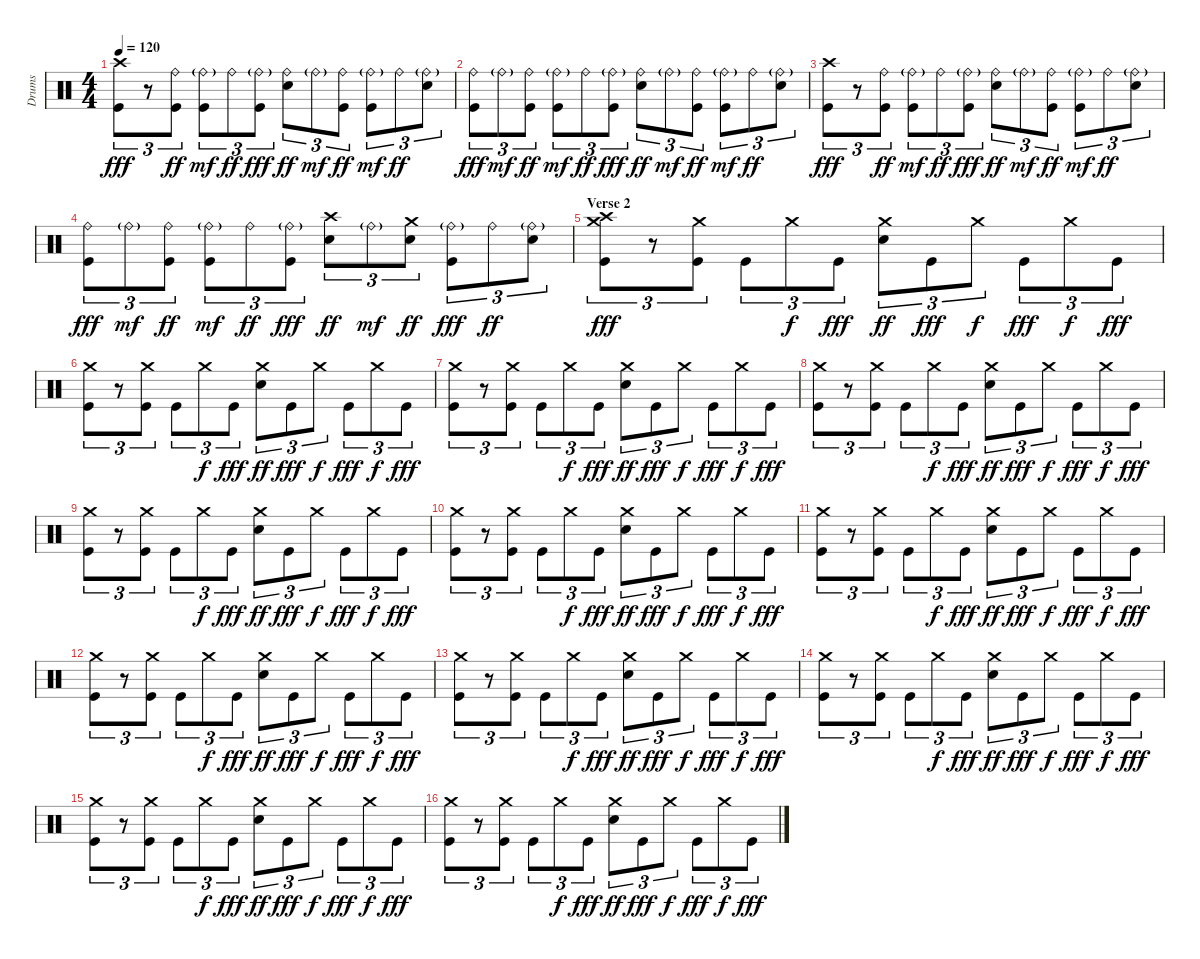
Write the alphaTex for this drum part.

\track ("Drums" "Drums") {instrument percussion}
\staff {score}
\articulation defaults
\ts (4 4)
\tempo 120
\clef neutral
\ks c
("Crash high (hit)" "Kick (hit)").8{tu (3 2) dy fff} r.8{tu (3 2)} ("Ride (bell)" "Kick (hit)").8{tu (3 2) dy ff} ("Ride (bell)"{g} "Kick (hit)").8{tu (3 2) dy mf} "Ride (bell)".8{tu (3 2) dy ff} ("Ride (bell)"{g} "Kick (hit)").8{tu (3 2) dy fff} ("Ride (bell)" "Snare (hit) 2").8{tu (3 2) dy ff} "Ride (bell)"{g}.8{tu (3 2) dy mf} ("Ride (bell)" "Kick (hit)").8{tu (3 2) dy ff} ("Ride (bell)"{g} "Kick (hit)").8{tu (3 2) dy mf} "Ride (bell)".8{tu (3 2) dy ff} ("Ride (bell)"{g} "Snare (hit) 2").8{tu (3 2)} |
("Ride (bell)" "Kick (hit)").8{tu (3 2) dy fff} "Ride (bell)"{g}.8{tu (3 2) dy mf} ("Ride (bell)" "Kick (hit)").8{tu (3 2) dy ff} ("Ride (bell)"{g} "Kick (hit)").8{tu (3 2) dy mf} "Ride (bell)".8{tu (3 2) dy ff} ("Ride (bell)"{g} "Kick (hit)").8{tu (3 2) dy fff} ("Ride (bell)" "Snare (hit) 2").8{tu (3 2) dy ff} "Ride (bell)"{g}.8{tu (3 2) dy mf} ("Ride (bell)" "Kick (hit)").8{tu (3 2) dy ff} ("Ride (bell)"{g} "Kick (hit)").8{tu (3 2) dy mf} "Ride (bell)".8{tu (3 2) dy ff} ("Ride (bell)"{g} "Snare (hit) 2").8{tu (3 2)} |
("Crash high (hit)" "Kick (hit)").8{tu (3 2) dy fff} r.8{tu (3 2)} ("Ride (bell)" "Kick (hit)").8{tu (3 2) dy ff} ("Ride (bell)"{g} "Kick (hit)").8{tu (3 2) dy mf} "Ride (bell)".8{tu (3 2) dy ff} ("Ride (bell)"{g} "Kick (hit)").8{tu (3 2) dy fff} ("Ride (bell)" "Snare (hit) 2").8{tu (3 2) dy ff} "Ride (bell)"{g}.8{tu (3 2) dy mf} ("Ride (bell)" "Kick (hit)").8{tu (3 2) dy ff} ("Ride (bell)"{g} "Kick (hit)").8{tu (3 2) dy mf} "Ride (bell)".8{tu (3 2) dy ff} ("Ride (bell)"{g} "Snare (hit) 2").8{tu (3 2)} |
("Ride (bell)" "Kick (hit)").8{tu (3 2) dy fff} "Ride (bell)"{g}.8{tu (3 2) dy mf} ("Ride (bell)" "Kick (hit)").8{tu (3 2) dy ff} ("Ride (bell)"{g} "Kick (hit)").8{tu (3 2) dy mf} "Ride (bell)".8{tu (3 2) dy ff} ("Ride (bell)"{g} "Kick (hit)").8{tu (3 2) dy fff} ("Crash high (hit)" "Snare (hit) 2").8{tu (3 2) dy ff} "Ride (bell)"{g}.8{tu (3 2) dy mf} ("Crash medium (hit)" "Snare (hit) 2").8{tu (3 2) dy ff} ("Ride (bell)"{g} "Kick (hit)").8{tu (3 2) dy fff} "Ride (bell)".8{tu (3 2) dy ff} ("Ride (bell)"{g} "Snare (hit) 2").8{tu (3 2)} |
\section ("" "Verse 2")
("Crash high (hit)" "Crash medium (hit)" "Kick (hit)").8{tu (3 2) dy fff} r.8{tu (3 2)} ("Crash medium (hit)" "Kick (hit)").8{tu (3 2)} "Kick (hit)".8{tu (3 2)} "Crash medium (hit)".8{tu (3 2) dy f} "Kick (hit)".8{tu (3 2) dy fff} ("Crash medium (hit)" "Snare (hit) 2").8{tu (3 2) dy ff} "Kick (hit)".8{tu (3 2) dy fff} "Crash medium (hit)".8{tu (3 2) dy f} "Kick (hit)".8{tu (3 2) dy fff} "Crash medium (hit)".8{tu (3 2) dy f} "Kick (hit)".8{tu (3 2) dy fff} |
("Crash medium (hit)" "Kick (hit)").8{tu (3 2)} r.8{tu (3 2)} ("Crash medium (hit)" "Kick (hit)").8{tu (3 2)} "Kick (hit)".8{tu (3 2)} "Crash medium (hit)".8{tu (3 2) dy f} "Kick (hit)".8{tu (3 2) dy fff} ("Crash medium (hit)" "Snare (hit) 2").8{tu (3 2) dy ff} "Kick (hit)".8{tu (3 2) dy fff} "Crash medium (hit)".8{tu (3 2) dy f} "Kick (hit)".8{tu (3 2) dy fff} "Crash medium (hit)".8{tu (3 2) dy f} "Kick (hit)".8{tu (3 2) dy fff} |
("Crash medium (hit)" "Kick (hit)").8{tu (3 2)} r.8{tu (3 2)} ("Crash medium (hit)" "Kick (hit)").8{tu (3 2)} "Kick (hit)".8{tu (3 2)} "Crash medium (hit)".8{tu (3 2) dy f} "Kick (hit)".8{tu (3 2) dy fff} ("Crash medium (hit)" "Snare (hit) 2").8{tu (3 2) dy ff} "Kick (hit)".8{tu (3 2) dy fff} "Crash medium (hit)".8{tu (3 2) dy f} "Kick (hit)".8{tu (3 2) dy fff} "Crash medium (hit)".8{tu (3 2) dy f} "Kick (hit)".8{tu (3 2) dy fff} |
("Crash medium (hit)" "Kick (hit)").8{tu (3 2)} r.8{tu (3 2)} ("Crash medium (hit)" "Kick (hit)").8{tu (3 2)} "Kick (hit)".8{tu (3 2)} "Crash medium (hit)".8{tu (3 2) dy f} "Kick (hit)".8{tu (3 2) dy fff} ("Crash medium (hit)" "Snare (hit) 2").8{tu (3 2) dy ff} "Kick (hit)".8{tu (3 2) dy fff} "Crash medium (hit)".8{tu (3 2) dy f} "Kick (hit)".8{tu (3 2) dy fff} "Crash medium (hit)".8{tu (3 2) dy f} "Kick (hit)".8{tu (3 2) dy fff} |
("Crash medium (hit)" "Kick (hit)").8{tu (3 2)} r.8{tu (3 2)} ("Crash medium (hit)" "Kick (hit)").8{tu (3 2)} "Kick (hit)".8{tu (3 2)} "Crash medium (hit)".8{tu (3 2) dy f} "Kick (hit)".8{tu (3 2) dy fff} ("Crash medium (hit)" "Snare (hit) 2").8{tu (3 2) dy ff} "Kick (hit)".8{tu (3 2) dy fff} "Crash medium (hit)".8{tu (3 2) dy f} "Kick (hit)".8{tu (3 2) dy fff} "Crash medium (hit)".8{tu (3 2) dy f} "Kick (hit)".8{tu (3 2) dy fff} |
("Crash medium (hit)" "Kick (hit)").8{tu (3 2)} r.8{tu (3 2)} ("Crash medium (hit)" "Kick (hit)").8{tu (3 2)} "Kick (hit)".8{tu (3 2)} "Crash medium (hit)".8{tu (3 2) dy f} "Kick (hit)".8{tu (3 2) dy fff} ("Crash medium (hit)" "Snare (hit) 2").8{tu (3 2) dy ff} "Kick (hit)".8{tu (3 2) dy fff} "Crash medium (hit)".8{tu (3 2) dy f} "Kick (hit)".8{tu (3 2) dy fff} "Crash medium (hit)".8{tu (3 2) dy f} "Kick (hit)".8{tu (3 2) dy fff} |
("Crash medium (hit)" "Kick (hit)").8{tu (3 2)} r.8{tu (3 2)} ("Crash medium (hit)" "Kick (hit)").8{tu (3 2)} "Kick (hit)".8{tu (3 2)} "Crash medium (hit)".8{tu (3 2) dy f} "Kick (hit)".8{tu (3 2) dy fff} ("Crash medium (hit)" "Snare (hit) 2").8{tu (3 2) dy ff} "Kick (hit)".8{tu (3 2) dy fff} "Crash medium (hit)".8{tu (3 2) dy f} "Kick (hit)".8{tu (3 2) dy fff} "Crash medium (hit)".8{tu (3 2) dy f} "Kick (hit)".8{tu (3 2) dy fff} |
("Crash medium (hit)" "Kick (hit)").8{tu (3 2)} r.8{tu (3 2)} ("Crash medium (hit)" "Kick (hit)").8{tu (3 2)} "Kick (hit)".8{tu (3 2)} "Crash medium (hit)".8{tu (3 2) dy f} "Kick (hit)".8{tu (3 2) dy fff} ("Crash medium (hit)" "Snare (hit) 2").8{tu (3 2) dy ff} "Kick (hit)".8{tu (3 2) dy fff} "Crash medium (hit)".8{tu (3 2) dy f} "Kick (hit)".8{tu (3 2) dy fff} "Crash medium (hit)".8{tu (3 2) dy f} "Kick (hit)".8{tu (3 2) dy fff} |
("Crash medium (hit)" "Kick (hit)").8{tu (3 2)} r.8{tu (3 2)} ("Crash medium (hit)" "Kick (hit)").8{tu (3 2)} "Kick (hit)".8{tu (3 2)} "Crash medium (hit)".8{tu (3 2) dy f} "Kick (hit)".8{tu (3 2) dy fff} ("Crash medium (hit)" "Snare (hit) 2").8{tu (3 2) dy ff} "Kick (hit)".8{tu (3 2) dy fff} "Crash medium (hit)".8{tu (3 2) dy f} "Kick (hit)".8{tu (3 2) dy fff} "Crash medium (hit)".8{tu (3 2) dy f} "Kick (hit)".8{tu (3 2) dy fff} |
("Crash medium (hit)" "Kick (hit)").8{tu (3 2)} r.8{tu (3 2)} ("Crash medium (hit)" "Kick (hit)").8{tu (3 2)} "Kick (hit)".8{tu (3 2)} "Crash medium (hit)".8{tu (3 2) dy f} "Kick (hit)".8{tu (3 2) dy fff} ("Crash medium (hit)" "Snare (hit) 2").8{tu (3 2) dy ff} "Kick (hit)".8{tu (3 2) dy fff} "Crash medium (hit)".8{tu (3 2) dy f} "Kick (hit)".8{tu (3 2) dy fff} "Crash medium (hit)".8{tu (3 2) dy f} "Kick (hit)".8{tu (3 2) dy fff} |
("Crash medium (hit)" "Kick (hit)").8{tu (3 2)} r.8{tu (3 2)} ("Crash medium (hit)" "Kick (hit)").8{tu (3 2)} "Kick (hit)".8{tu (3 2)} "Crash medium (hit)".8{tu (3 2) dy f} "Kick (hit)".8{tu (3 2) dy fff} ("Crash medium (hit)" "Snare (hit) 2").8{tu (3 2) dy ff} "Kick (hit)".8{tu (3 2) dy fff} "Crash medium (hit)".8{tu (3 2) dy f} "Kick (hit)".8{tu (3 2) dy fff} "Crash medium (hit)".8{tu (3 2) dy f} "Kick (hit)".8{tu (3 2) dy fff} |
("Crash medium (hit)" "Kick (hit)").8{tu (3 2)} r.8{tu (3 2)} ("Crash medium (hit)" "Kick (hit)").8{tu (3 2)} "Kick (hit)".8{tu (3 2)} "Crash medium (hit)".8{tu (3 2) dy f} "Kick (hit)".8{tu (3 2) dy fff} ("Crash medium (hit)" "Snare (hit) 2").8{tu (3 2) dy ff} "Kick (hit)".8{tu (3 2) dy fff} "Crash medium (hit)".8{tu (3 2) dy f} "Kick (hit)".8{tu (3 2) dy fff} "Crash medium (hit)".8{tu (3 2) dy f} "Kick (hit)".8{tu (3 2) dy fff}
